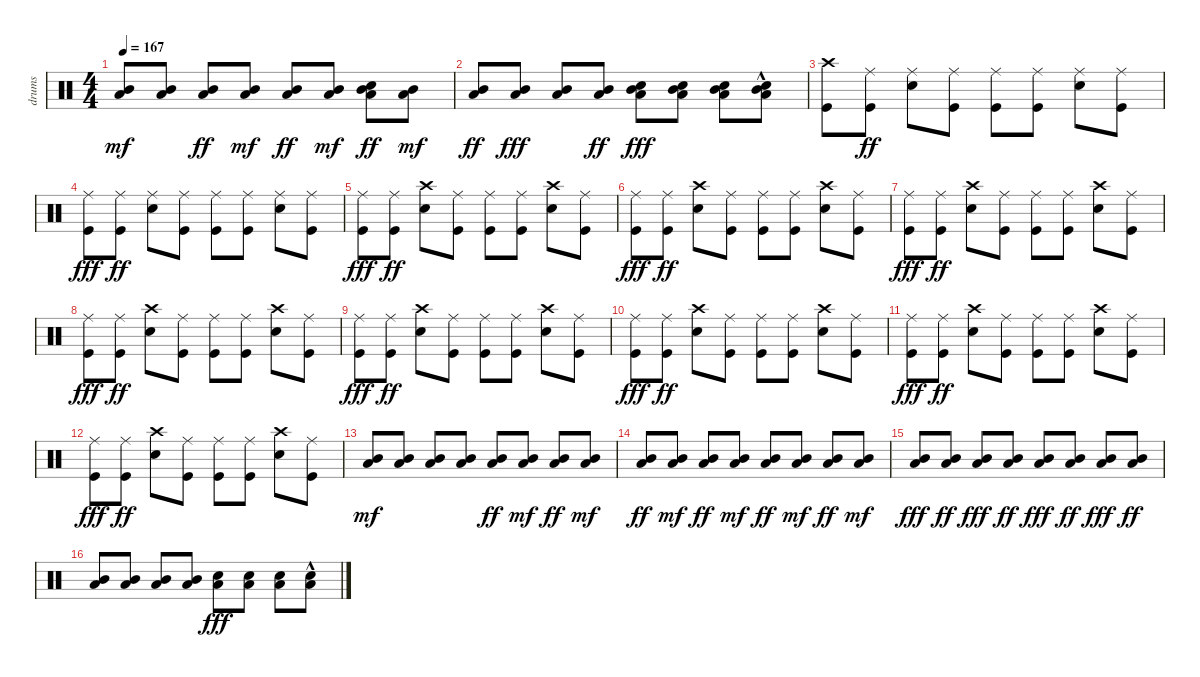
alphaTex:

\track ("drums" "drums") {instrument percussion}
\staff {score}
\articulation defaults
\ts (4 4)
\tempo 167
\clef neutral
\ks c
("Low Tom (hit)" "Mid Tom (hit)").8{dy mf} ("Low Tom (hit)" "Mid Tom (hit)").8 ("Low Tom (hit)" "Mid Tom (hit)").8{dy ff} ("Low Tom (hit)" "Mid Tom (hit)").8{dy mf} ("Low Tom (hit)" "Mid Tom (hit)").8{dy ff} ("Low Tom (hit)" "Mid Tom (hit)").8{dy mf} ("Snare (hit)" "Low Tom (hit)" "Mid Tom (hit)").8{dy ff} ("Mid Tom (hit)" "Low Tom (hit)").8{dy mf} |
("Low Tom (hit)" "Mid Tom (hit)").8{dy ff} ("Low Tom (hit)" "Mid Tom (hit)").8{dy fff} ("Low Tom (hit)" "Mid Tom (hit)").8 ("Low Tom (hit)" "Mid Tom (hit)").8{dy ff} ("Low Tom (hit)" "Snare (hit) 2" "Mid Tom (hit)").8{dy fff} ("Low Tom (hit)" "Snare (hit) 2" "Mid Tom (hit)").8 ("Low Tom (hit)" "Snare (hit) 2" "Mid Tom (hit)").8 ("Mid Tom (hit)" "Snare (hit) 2"{hac} "Low Tom (hit)").8 |
("Crash high (hit)" "Kick (hit)").8 ("Kick (hit)" "Ride (middle)").8{dy ff} ("Snare (hit) 2" "Ride (middle)").8 ("Kick (hit)" "Ride (middle)").8 ("Kick (hit)" "Ride (middle)").8 ("Kick (hit)" "Ride (middle)").8 ("Snare (hit) 2" "Ride (middle)").8 ("Ride (middle)" "Kick (hit)").8 |
("Kick (hit)" "Ride (middle)").8{dy fff} ("Kick (hit)" "Ride (middle)").8{dy ff} ("Snare (hit) 2" "Ride (middle)").8 ("Kick (hit)" "Ride (middle)").8 ("Kick (hit)" "Ride (middle)").8 ("Kick (hit)" "Ride (middle)").8 ("Snare (hit) 2" "Ride (middle)").8 ("Ride (middle)" "Kick (hit)").8 |
("Kick (hit)" "Ride (middle)").8{dy fff} ("Kick (hit)" "Ride (middle)").8{dy ff} ("Snare (hit) 2" "Crash high (hit)").8 ("Kick (hit)" "Ride (middle)").8 ("Kick (hit)" "Ride (middle)").8 ("Kick (hit)" "Ride (middle)").8 ("Crash high (hit)" "Snare (hit) 2").8 ("Ride (middle)" "Kick (hit)").8 |
("Kick (hit)" "Ride (middle)").8{dy fff} ("Kick (hit)" "Ride (middle)").8{dy ff} ("Snare (hit) 2" "Crash high (hit)").8 ("Kick (hit)" "Ride (middle)").8 ("Kick (hit)" "Ride (middle)").8 ("Kick (hit)" "Ride (middle)").8 ("Crash high (hit)" "Snare (hit) 2").8 ("Ride (middle)" "Kick (hit)").8 |
("Kick (hit)" "Ride (middle)").8{dy fff} ("Kick (hit)" "Ride (middle)").8{dy ff} ("Snare (hit) 2" "Crash high (hit)").8 ("Kick (hit)" "Ride (middle)").8 ("Kick (hit)" "Ride (middle)").8 ("Kick (hit)" "Ride (middle)").8 ("Crash high (hit)" "Snare (hit) 2").8 ("Ride (middle)" "Kick (hit)").8 |
("Kick (hit)" "Ride (middle)").8{dy fff} ("Kick (hit)" "Ride (middle)").8{dy ff} ("Snare (hit) 2" "Crash high (hit)").8 ("Kick (hit)" "Ride (middle)").8 ("Kick (hit)" "Ride (middle)").8 ("Kick (hit)" "Ride (middle)").8 ("Crash high (hit)" "Snare (hit) 2").8 ("Ride (middle)" "Kick (hit)").8 |
("Kick (hit)" "Ride (middle)").8{dy fff} ("Kick (hit)" "Ride (middle)").8{dy ff} ("Snare (hit) 2" "Crash high (hit)").8 ("Kick (hit)" "Ride (middle)").8 ("Kick (hit)" "Ride (middle)").8 ("Kick (hit)" "Ride (middle)").8 ("Crash high (hit)" "Snare (hit) 2").8 ("Ride (middle)" "Kick (hit)").8 |
("Kick (hit)" "Ride (middle)").8{dy fff} ("Kick (hit)" "Ride (middle)").8{dy ff} ("Snare (hit) 2" "Crash high (hit)").8 ("Kick (hit)" "Ride (middle)").8 ("Kick (hit)" "Ride (middle)").8 ("Kick (hit)" "Ride (middle)").8 ("Crash high (hit)" "Snare (hit) 2").8 ("Ride (middle)" "Kick (hit)").8 |
("Kick (hit)" "Ride (middle)").8{dy fff} ("Kick (hit)" "Ride (middle)").8{dy ff} ("Snare (hit) 2" "Crash high (hit)").8 ("Kick (hit)" "Ride (middle)").8 ("Kick (hit)" "Ride (middle)").8 ("Kick (hit)" "Ride (middle)").8 ("Crash high (hit)" "Snare (hit) 2").8 ("Ride (middle)" "Kick (hit)").8 |
("Kick (hit)" "Ride (middle)").8{dy fff} ("Kick (hit)" "Ride (middle)").8{dy ff} ("Snare (hit) 2" "Crash high (hit)").8 ("Kick (hit)" "Ride (middle)").8 ("Kick (hit)" "Ride (middle)").8 ("Kick (hit)" "Ride (middle)").8 ("Crash high (hit)" "Snare (hit) 2").8 ("Ride (middle)" "Kick (hit)").8 |
("Low Tom (hit)" "Mid Tom (hit)").8{dy mf} ("Low Tom (hit)" "Mid Tom (hit)").8 ("Low Tom (hit)" "Mid Tom (hit)").8 ("Low Tom (hit)" "Mid Tom (hit)").8 ("Low Tom (hit)" "Mid Tom (hit)").8{dy ff} ("Low Tom (hit)" "Mid Tom (hit)").8{dy mf} ("Low Tom (hit)" "Mid Tom (hit)").8{dy ff} ("Mid Tom (hit)" "Low Tom (hit)").8{dy mf} |
("Low Tom (hit)" "Mid Tom (hit)").8{dy ff} ("Low Tom (hit)" "Mid Tom (hit)").8{dy mf} ("Low Tom (hit)" "Mid Tom (hit)").8{dy ff} ("Low Tom (hit)" "Mid Tom (hit)").8{dy mf} ("Low Tom (hit)" "Mid Tom (hit)").8{dy ff} ("Low Tom (hit)" "Mid Tom (hit)").8{dy mf} ("Low Tom (hit)" "Mid Tom (hit)").8{dy ff} ("Mid Tom (hit)" "Low Tom (hit)").8{dy mf} |
("Low Tom (hit)" "Mid Tom (hit)").8{dy fff} ("Low Tom (hit)" "Mid Tom (hit)").8{dy ff} ("Low Tom (hit)" "Mid Tom (hit)").8{dy fff} ("Low Tom (hit)" "Mid Tom (hit)").8{dy ff} ("Low Tom (hit)" "Mid Tom (hit)").8{dy fff} ("Low Tom (hit)" "Mid Tom (hit)").8{dy ff} ("Low Tom (hit)" "Mid Tom (hit)").8{dy fff} ("Mid Tom (hit)" "Low Tom (hit)").8{dy ff} |
("Low Tom (hit)" "Mid Tom (hit)").8 ("Low Tom (hit)" "Mid Tom (hit)").8 ("Low Tom (hit)" "Mid Tom (hit)").8 ("Mid Tom (hit)" "Low Tom (hit)").8 ("Snare (hit) 2" "Low Tom (hit)").8{dy fff} ("Snare (hit) 2" "Low Tom (hit)").8 ("Snare (hit) 2" "Low Tom (hit)").8 ("Low Tom (hit)" "Snare (hit) 2"{hac}).8
